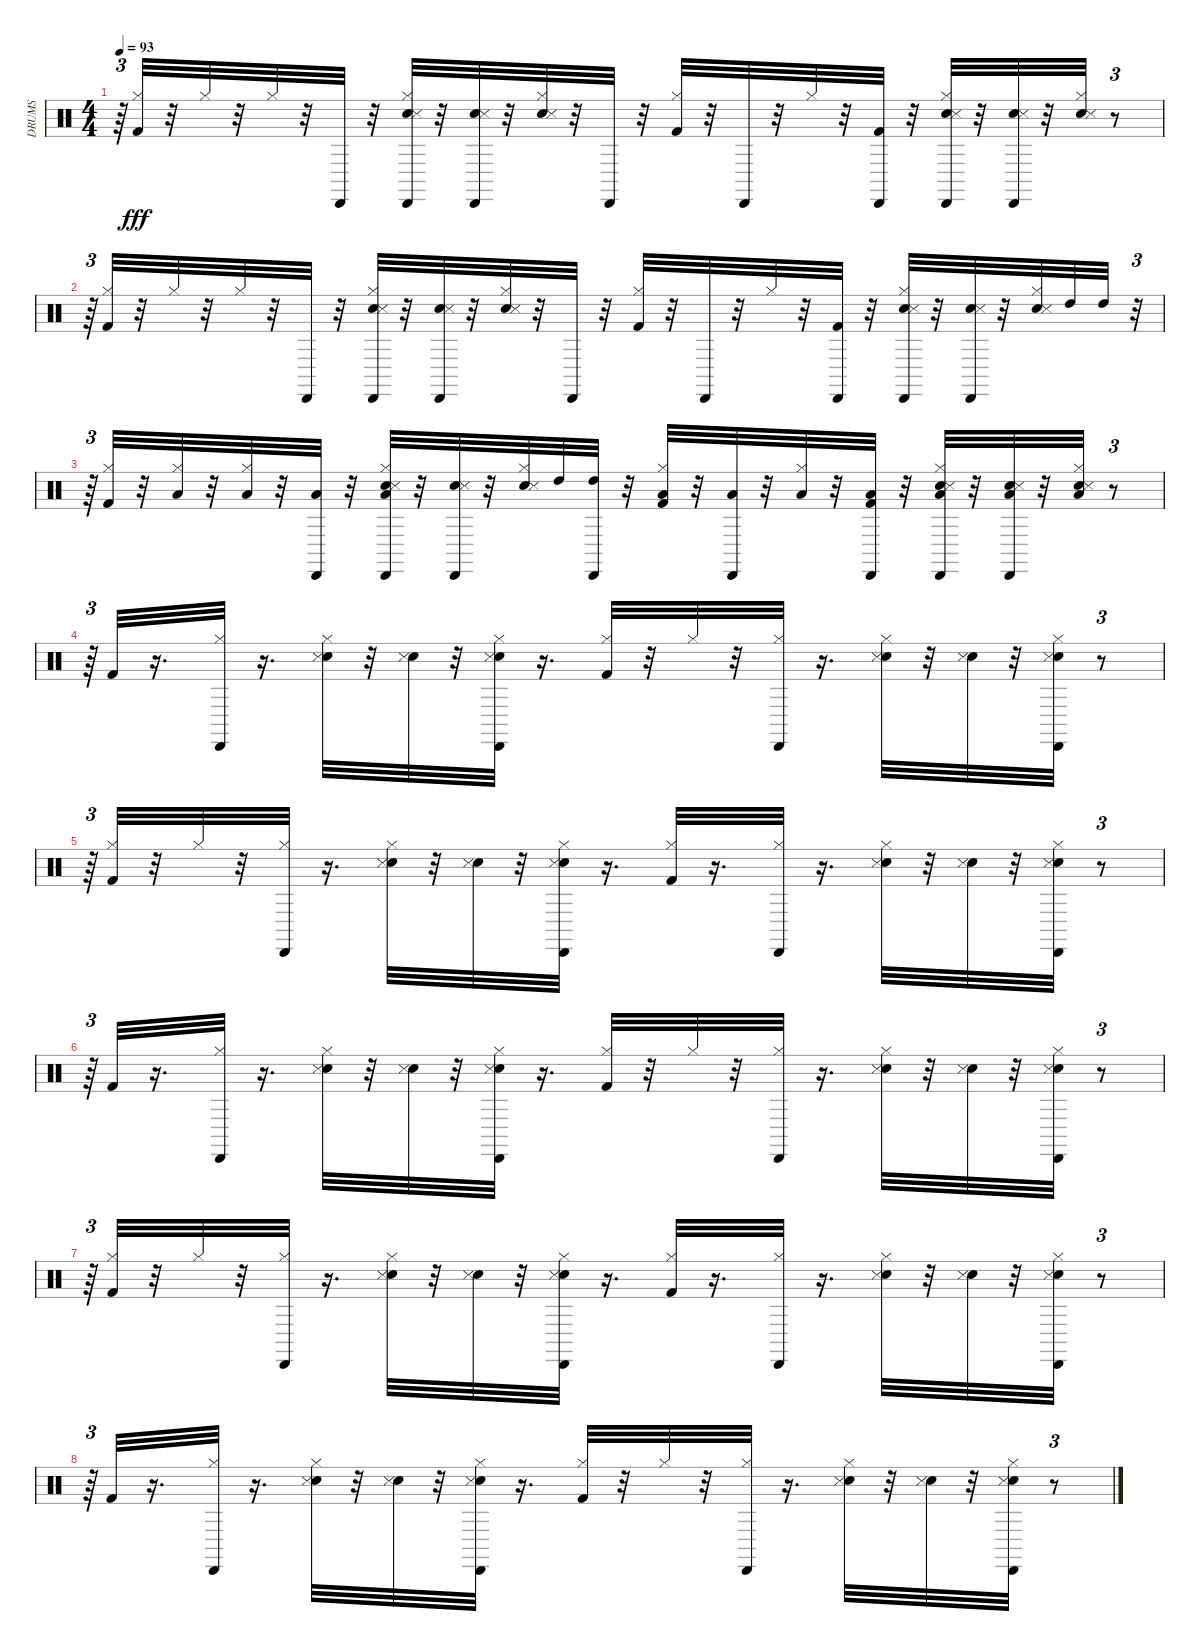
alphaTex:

\track ("DRUMS   " "DRUMS   ") {instrument percussion}
\staff {score}
\articulation defaults
\ts (4 4)
\tempo 93
\clef neutral
\ks c
r.64{tu (3 2) dy fff} ("Kick (hit) 2" "Hi-Hat (closed)").32 r.32 "Hi-Hat (closed)".32 r.32 "Hi-Hat (closed)".32 r.32 "Cabasa (hit)".32 r.32 ("Snare (hit) 2" "Hi-Hat (closed)" "Snare (side stick) 3" "Cabasa (hit)").32 r.32 ("Snare (hit) 2" "Snare (side stick) 3" "Cabasa (hit)").32 r.32 ("Snare (hit) 2" "Hi-Hat (closed)" "Snare (side stick) 3").32 r.32 "Cabasa (hit)".32 r.32 ("Kick (hit) 2" "Hi-Hat (closed)").32 r.32 "Cabasa (hit)".32 r.32 "Hi-Hat (closed)".32 r.32 ("Kick (hit) 2" "Cabasa (hit)").32 r.32 ("Snare (hit) 2" "Hi-Hat (closed)" "Snare (side stick) 3" "Cabasa (hit)").32 r.32 ("Snare (hit) 2" "Snare (side stick) 3" "Cabasa (hit)").32 r.32 ("Snare (hit) 2" "Hi-Hat (closed)" "Snare (side stick) 3").32 r.8{tu (3 2)} |
r.64{tu (3 2)} ("Kick (hit) 2" "Hi-Hat (closed)").32 r.32 "Hi-Hat (closed)".32 r.32 "Hi-Hat (closed)".32 r.32 "Cabasa (hit)".32 r.32 ("Snare (hit) 2" "Hi-Hat (closed)" "Snare (side stick) 3" "Cabasa (hit)").32 r.32 ("Snare (hit) 2" "Snare (side stick) 3" "Cabasa (hit)").32 r.32 ("Snare (hit) 2" "Hi-Hat (closed)" "Snare (side stick) 3").32 r.32 "Cabasa (hit)".32 r.32 ("Kick (hit) 2" "Hi-Hat (closed)").32 r.32 "Cabasa (hit)".32 r.32 "Hi-Hat (closed)".32 r.32 ("Kick (hit) 2" "Cabasa (hit)").32 r.32 ("Snare (hit) 2" "Hi-Hat (closed)" "Snare (side stick) 3" "Cabasa (hit)").32 r.32 ("Snare (hit) 2" "Snare (side stick) 3" "Cabasa (hit)").32 r.32 ("Snare (hit) 2" "Hi-Hat (closed)" "Snare (side stick) 3").32 "High Tom (hit)".32 "High Tom (hit)".32 r.32{tu (3 2)} |
r.64{tu (3 2)} ("Kick (hit) 2" "Hi-Hat (closed)").32 r.32 ("Hi-Hat (closed)" "Low Floor Tom (hit)").32 r.32 ("Hi-Hat (closed)" "Low Floor Tom (hit)").32 r.32 ("Low Floor Tom (hit)" "Cabasa (hit)").32 r.32 ("Snare (hit) 2" "Hi-Hat (closed)" "Low Floor Tom (hit)" "Snare (side stick) 3" "Cabasa (hit)").32 r.32 ("Snare (hit) 2" "Snare (side stick) 3" "Cabasa (hit)").32 r.32 ("Snare (hit) 2" "Hi-Hat (closed)" "Snare (side stick) 3").32 "High Tom (hit)".32 ("High Tom (hit)" "Cabasa (hit)").32 r.32 ("Kick (hit) 2" "Hi-Hat (closed)" "Low Tom (hit)").32 r.32 ("Low Tom (hit)" "Cabasa (hit)").32 r.32 ("Hi-Hat (closed)" "Low Tom (hit)").32 r.32 ("Kick (hit) 2" "Low Floor Tom (hit)" "Cabasa (hit)").32 r.32 ("Snare (hit) 2" "Hi-Hat (closed)" "Low Floor Tom (hit)" "Snare (side stick) 3" "Cabasa (hit)").32 r.32 ("Snare (hit) 2" "Low Floor Tom (hit)" "Snare (side stick) 3" "Cabasa (hit)").32 r.32 ("Snare (hit) 2" "Hi-Hat (closed)" "Low Floor Tom (hit)" "Snare (side stick) 3").32 r.8{tu (3 2)} |
r.64{tu (3 2)} "Kick (hit) 2".32 r.16{d} ("Hi-Hat (closed)" "Cabasa (hit)").32 r.16{d} ("Snare (hit) 2" "Hi-Hat (closed)" "Snare (side stick) 3").32 r.32 ("Snare (hit) 2" "Snare (side stick) 3").32 r.32 ("Snare (hit) 2" "Hi-Hat (closed)" "Snare (side stick) 3" "Cabasa (hit)").32 r.16{d} ("Kick (hit) 2" "Hi-Hat (closed)").32 r.32 "Hi-Hat (closed)".32 r.32 ("Hi-Hat (closed)" "Cabasa (hit)").32 r.16{d} ("Snare (hit) 2" "Hi-Hat (closed)" "Snare (side stick) 3").32 r.32 ("Snare (hit) 2" "Snare (side stick) 3").32 r.32 ("Snare (hit) 2" "Hi-Hat (closed)" "Snare (side stick) 3" "Cabasa (hit)").32 r.8{tu (3 2)} |
r.64{tu (3 2)} ("Kick (hit) 2" "Hi-Hat (closed)").32 r.32 "Hi-Hat (closed)".32 r.32 ("Hi-Hat (closed)" "Cabasa (hit)").32 r.16{d} ("Snare (hit) 2" "Hi-Hat (closed)" "Snare (side stick) 3").32 r.32 ("Snare (hit) 2" "Snare (side stick) 3").32 r.32 ("Snare (hit) 2" "Hi-Hat (closed)" "Snare (side stick) 3" "Cabasa (hit)").32 r.16{d} ("Kick (hit) 2" "Hi-Hat (closed)").32 r.16{d} ("Hi-Hat (closed)" "Cabasa (hit)").32 r.16{d} ("Snare (hit) 2" "Hi-Hat (closed)" "Snare (side stick) 3").32 r.32 ("Snare (hit) 2" "Snare (side stick) 3").32 r.32 ("Snare (hit) 2" "Hi-Hat (closed)" "Snare (side stick) 3" "Cabasa (hit)").32 r.8{tu (3 2)} |
r.64{tu (3 2)} "Kick (hit) 2".32 r.16{d} ("Hi-Hat (closed)" "Cabasa (hit)").32 r.16{d} ("Snare (hit) 2" "Hi-Hat (closed)" "Snare (side stick) 3").32 r.32 ("Snare (hit) 2" "Snare (side stick) 3").32 r.32 ("Snare (hit) 2" "Hi-Hat (closed)" "Snare (side stick) 3" "Cabasa (hit)").32 r.16{d} ("Kick (hit) 2" "Hi-Hat (closed)").32 r.32 "Hi-Hat (closed)".32 r.32 ("Hi-Hat (closed)" "Cabasa (hit)").32 r.16{d} ("Snare (hit) 2" "Hi-Hat (closed)" "Snare (side stick) 3").32 r.32 ("Snare (hit) 2" "Snare (side stick) 3").32 r.32 ("Snare (hit) 2" "Hi-Hat (closed)" "Snare (side stick) 3" "Cabasa (hit)").32 r.8{tu (3 2)} |
r.64{tu (3 2)} ("Kick (hit) 2" "Hi-Hat (closed)").32 r.32 "Hi-Hat (closed)".32 r.32 ("Hi-Hat (closed)" "Cabasa (hit)").32 r.16{d} ("Snare (hit) 2" "Hi-Hat (closed)" "Snare (side stick) 3").32 r.32 ("Snare (hit) 2" "Snare (side stick) 3").32 r.32 ("Snare (hit) 2" "Hi-Hat (closed)" "Snare (side stick) 3" "Cabasa (hit)").32 r.16{d} ("Kick (hit) 2" "Hi-Hat (closed)").32 r.16{d} ("Hi-Hat (closed)" "Cabasa (hit)").32 r.16{d} ("Snare (hit) 2" "Hi-Hat (closed)" "Snare (side stick) 3").32 r.32 ("Snare (hit) 2" "Snare (side stick) 3").32 r.32 ("Snare (hit) 2" "Hi-Hat (closed)" "Snare (side stick) 3" "Cabasa (hit)").32 r.8{tu (3 2)} |
r.64{tu (3 2)} "Kick (hit) 2".32 r.16{d} ("Hi-Hat (closed)" "Cabasa (hit)").32 r.16{d} ("Snare (hit) 2" "Hi-Hat (closed)" "Snare (side stick) 3").32 r.32 ("Snare (hit) 2" "Snare (side stick) 3").32 r.32 ("Snare (hit) 2" "Hi-Hat (closed)" "Snare (side stick) 3" "Cabasa (hit)").32 r.16{d} ("Kick (hit) 2" "Hi-Hat (closed)").32 r.32 "Hi-Hat (closed)".32 r.32 ("Hi-Hat (closed)" "Cabasa (hit)").32 r.16{d} ("Snare (hit) 2" "Hi-Hat (closed)" "Snare (side stick) 3").32 r.32 ("Snare (hit) 2" "Snare (side stick) 3").32 r.32 ("Snare (hit) 2" "Hi-Hat (closed)" "Snare (side stick) 3" "Cabasa (hit)").32 r.8{tu (3 2)}
